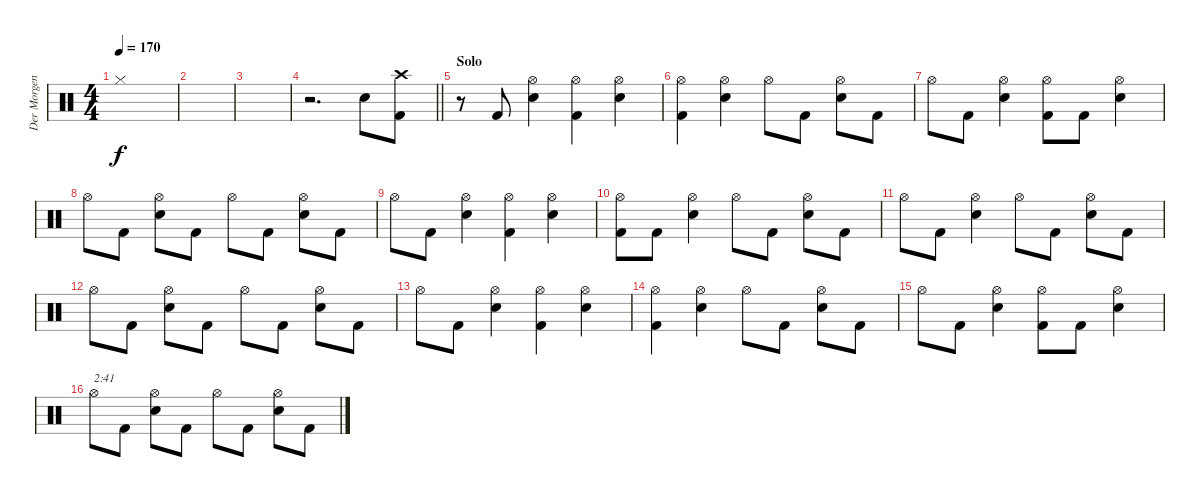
\track ("Der Morgenstern" "Der Morgen") {instrument percussion}
\staff {score}
\articulation defaults
\ts (4 4)
\tempo 170
\clef neutral
\ks c "Hi-Hat (closed)".1{dy f}
|
|
|
\barLineRight lightlight
r.2{d} "Electric Snare (hit)".8 ("Crash high (hit)" "Kick (hit) 2").8 |
\section ("" "Solo")
r.8 "Kick (hit) 2".8 ("Hi-Hat (open)" "Electric Snare (hit)").4 ("Hi-Hat (open)" "Kick (hit) 2").4 ("Hi-Hat (open)" "Electric Snare (hit)").4 |
("Hi-Hat (open)" "Kick (hit) 2").4 ("Hi-Hat (open)" "Electric Snare (hit)").4 "Hi-Hat (open)".8 "Kick (hit) 2".8 ("Hi-Hat (open)" "Electric Snare (hit)").8 "Kick (hit) 2".8 |
"Hi-Hat (open)".8 "Kick (hit) 2".8 ("Hi-Hat (open)" "Electric Snare (hit)").4 ("Hi-Hat (open)" "Kick (hit) 2").8 "Kick (hit) 2".8 ("Hi-Hat (open)" "Electric Snare (hit)").4 |
"Hi-Hat (open)".8 "Kick (hit) 2".8 ("Hi-Hat (open)" "Electric Snare (hit)").8 "Kick (hit) 2".8 "Hi-Hat (open)".8 "Kick (hit) 2".8 ("Hi-Hat (open)" "Electric Snare (hit)").8 "Kick (hit) 2".8 |
"Hi-Hat (open)".8 "Kick (hit) 2".8 ("Hi-Hat (open)" "Electric Snare (hit)").4 ("Hi-Hat (open)" "Kick (hit) 2").4 ("Hi-Hat (open)" "Electric Snare (hit)").4 |
("Hi-Hat (open)" "Kick (hit) 2").8 "Kick (hit) 2".8 ("Hi-Hat (open)" "Electric Snare (hit)").4 "Hi-Hat (open)".8 "Kick (hit) 2".8 ("Hi-Hat (open)" "Electric Snare (hit)").8 "Kick (hit) 2".8 |
"Hi-Hat (open)".8 "Kick (hit) 2".8 ("Hi-Hat (open)" "Electric Snare (hit)").4 "Hi-Hat (open)".8 "Kick (hit) 2".8 ("Hi-Hat (open)" "Electric Snare (hit)").8 "Kick (hit) 2".8 |
"Hi-Hat (open)".8 "Kick (hit) 2".8 ("Hi-Hat (open)" "Electric Snare (hit)").8 "Kick (hit) 2".8 "Hi-Hat (open)".8 "Kick (hit) 2".8 ("Hi-Hat (open)" "Electric Snare (hit)").8 "Kick (hit) 2".8 |
"Hi-Hat (open)".8 "Kick (hit) 2".8 ("Hi-Hat (open)" "Electric Snare (hit)").4 ("Hi-Hat (open)" "Kick (hit) 2").4 ("Hi-Hat (open)" "Electric Snare (hit)").4 |
("Hi-Hat (open)" "Kick (hit) 2").4 ("Hi-Hat (open)" "Electric Snare (hit)").4 "Hi-Hat (open)".8 "Kick (hit) 2".8 ("Hi-Hat (open)" "Electric Snare (hit)").8 "Kick (hit) 2".8 |
"Hi-Hat (open)".8 "Kick (hit) 2".8 ("Hi-Hat (open)" "Electric Snare (hit)").4 ("Hi-Hat (open)" "Kick (hit) 2").8 "Kick (hit) 2".8 ("Hi-Hat (open)" "Electric Snare (hit)").4 |
"Hi-Hat (open)".8{txt "2:41"} "Kick (hit) 2".8 ("Hi-Hat (open)" "Electric Snare (hit)").8 "Kick (hit) 2".8 "Hi-Hat (open)".8 "Kick (hit) 2".8 ("Hi-Hat (open)" "Electric Snare (hit)").8 "Kick (hit) 2".8
